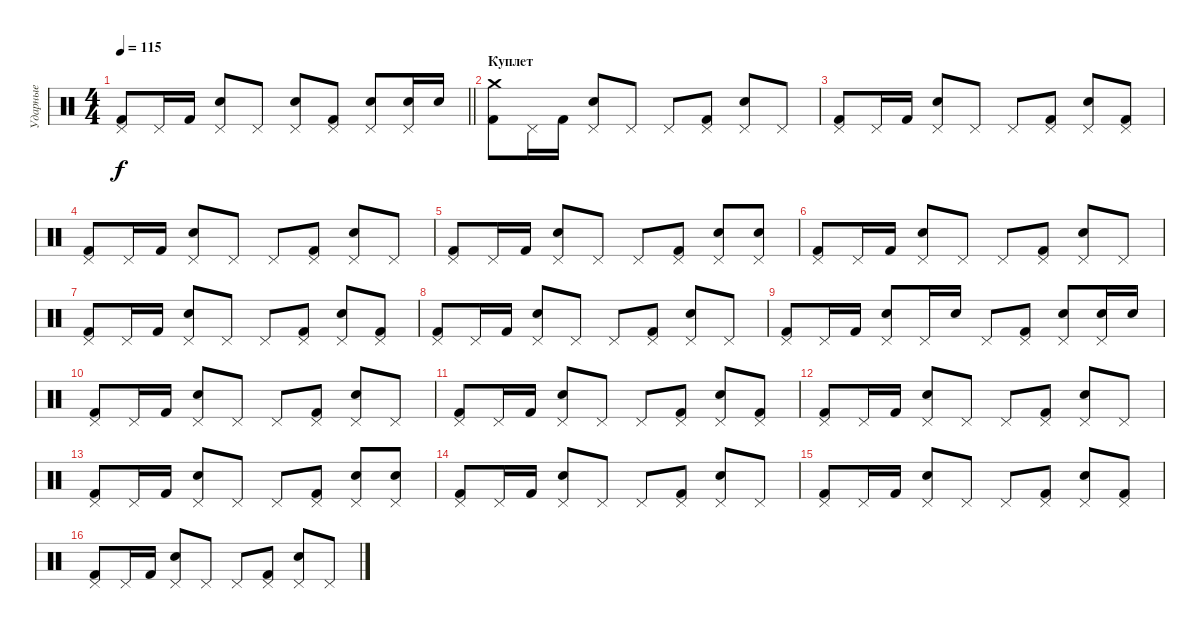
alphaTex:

\track ("Ударные" "Ударные") {instrument percussion}
\staff {score}
\articulation defaults
\ts (4 4)
\tempo 115
\clef neutral
\barLineRight lightlight
\ks c
("Pedal Hi-Hat (hit)" "Kick (hit) 2").8{dy f} "Pedal Hi-Hat (hit)".16 "Kick (hit) 2".16 ("Pedal Hi-Hat (hit)" "Electric Snare (hit)").8 "Pedal Hi-Hat (hit)".8 ("Pedal Hi-Hat (hit)" "Electric Snare (hit)").8 ("Pedal Hi-Hat (hit)" "Kick (hit) 2").8 ("Pedal Hi-Hat (hit)" "Electric Snare (hit)").8 ("Pedal Hi-Hat (hit)" "Electric Snare (hit)").16 "Electric Snare (hit)".16 |
\section ("" "Куплет")
("Crash medium (hit)" "Kick (hit) 2").8 "Pedal Hi-Hat (hit)".16 "Kick (hit) 2".16 ("Pedal Hi-Hat (hit)" "Electric Snare (hit)").8 "Pedal Hi-Hat (hit)".8 "Pedal Hi-Hat (hit)".8 ("Pedal Hi-Hat (hit)" "Kick (hit) 2").8 ("Pedal Hi-Hat (hit)" "Electric Snare (hit)").8 "Pedal Hi-Hat (hit)".8 |
("Pedal Hi-Hat (hit)" "Kick (hit) 2").8 "Pedal Hi-Hat (hit)".16 "Kick (hit) 2".16 ("Pedal Hi-Hat (hit)" "Electric Snare (hit)").8 "Pedal Hi-Hat (hit)".8 "Pedal Hi-Hat (hit)".8 ("Pedal Hi-Hat (hit)" "Kick (hit) 2").8 ("Pedal Hi-Hat (hit)" "Electric Snare (hit)").8 ("Pedal Hi-Hat (hit)" "Kick (hit) 2").8 |
("Pedal Hi-Hat (hit)" "Kick (hit) 2").8 "Pedal Hi-Hat (hit)".16 "Kick (hit) 2".16 ("Pedal Hi-Hat (hit)" "Electric Snare (hit)").8 "Pedal Hi-Hat (hit)".8 "Pedal Hi-Hat (hit)".8 ("Pedal Hi-Hat (hit)" "Kick (hit) 2").8 ("Pedal Hi-Hat (hit)" "Electric Snare (hit)").8 "Pedal Hi-Hat (hit)".8 |
("Pedal Hi-Hat (hit)" "Kick (hit) 2").8 "Pedal Hi-Hat (hit)".16 "Kick (hit) 2".16 ("Pedal Hi-Hat (hit)" "Electric Snare (hit)").8 "Pedal Hi-Hat (hit)".8 "Pedal Hi-Hat (hit)".8 ("Pedal Hi-Hat (hit)" "Kick (hit) 2").8 ("Pedal Hi-Hat (hit)" "Electric Snare (hit)").8 ("Pedal Hi-Hat (hit)" "Electric Snare (hit)").8 |
("Pedal Hi-Hat (hit)" "Kick (hit) 2").8 "Pedal Hi-Hat (hit)".16 "Kick (hit) 2".16 ("Pedal Hi-Hat (hit)" "Electric Snare (hit)").8 "Pedal Hi-Hat (hit)".8 "Pedal Hi-Hat (hit)".8 ("Pedal Hi-Hat (hit)" "Kick (hit) 2").8 ("Pedal Hi-Hat (hit)" "Electric Snare (hit)").8 "Pedal Hi-Hat (hit)".8 |
("Pedal Hi-Hat (hit)" "Kick (hit) 2").8 "Pedal Hi-Hat (hit)".16 "Kick (hit) 2".16 ("Pedal Hi-Hat (hit)" "Electric Snare (hit)").8 "Pedal Hi-Hat (hit)".8 "Pedal Hi-Hat (hit)".8 ("Pedal Hi-Hat (hit)" "Kick (hit) 2").8 ("Pedal Hi-Hat (hit)" "Electric Snare (hit)").8 ("Pedal Hi-Hat (hit)" "Kick (hit) 2").8 |
("Pedal Hi-Hat (hit)" "Kick (hit) 2").8 "Pedal Hi-Hat (hit)".16 "Kick (hit) 2".16 ("Pedal Hi-Hat (hit)" "Electric Snare (hit)").8 "Pedal Hi-Hat (hit)".8 "Pedal Hi-Hat (hit)".8 ("Pedal Hi-Hat (hit)" "Kick (hit) 2").8 ("Pedal Hi-Hat (hit)" "Electric Snare (hit)").8 "Pedal Hi-Hat (hit)".8 |
("Pedal Hi-Hat (hit)" "Kick (hit) 2").8 "Pedal Hi-Hat (hit)".16 "Kick (hit) 2".16 ("Pedal Hi-Hat (hit)" "Electric Snare (hit)").8 "Pedal Hi-Hat (hit)".16 "Electric Snare (hit)".16 "Pedal Hi-Hat (hit)".8 ("Pedal Hi-Hat (hit)" "Kick (hit) 2").8 ("Pedal Hi-Hat (hit)" "Electric Snare (hit)").8 ("Pedal Hi-Hat (hit)" "Electric Snare (hit)").16 "Electric Snare (hit)".16 |
("Pedal Hi-Hat (hit)" "Kick (hit) 2").8 "Pedal Hi-Hat (hit)".16 "Kick (hit) 2".16 ("Pedal Hi-Hat (hit)" "Electric Snare (hit)").8 "Pedal Hi-Hat (hit)".8 "Pedal Hi-Hat (hit)".8 ("Pedal Hi-Hat (hit)" "Kick (hit) 2").8 ("Pedal Hi-Hat (hit)" "Electric Snare (hit)").8 "Pedal Hi-Hat (hit)".8 |
("Pedal Hi-Hat (hit)" "Kick (hit) 2").8 "Pedal Hi-Hat (hit)".16 "Kick (hit) 2".16 ("Pedal Hi-Hat (hit)" "Electric Snare (hit)").8 "Pedal Hi-Hat (hit)".8 "Pedal Hi-Hat (hit)".8 ("Pedal Hi-Hat (hit)" "Kick (hit) 2").8 ("Pedal Hi-Hat (hit)" "Electric Snare (hit)").8 ("Pedal Hi-Hat (hit)" "Kick (hit) 2").8 |
("Pedal Hi-Hat (hit)" "Kick (hit) 2").8 "Pedal Hi-Hat (hit)".16 "Kick (hit) 2".16 ("Pedal Hi-Hat (hit)" "Electric Snare (hit)").8 "Pedal Hi-Hat (hit)".8 "Pedal Hi-Hat (hit)".8 ("Pedal Hi-Hat (hit)" "Kick (hit) 2").8 ("Pedal Hi-Hat (hit)" "Electric Snare (hit)").8 "Pedal Hi-Hat (hit)".8 |
("Pedal Hi-Hat (hit)" "Kick (hit) 2").8 "Pedal Hi-Hat (hit)".16 "Kick (hit) 2".16 ("Pedal Hi-Hat (hit)" "Electric Snare (hit)").8 "Pedal Hi-Hat (hit)".8 "Pedal Hi-Hat (hit)".8 ("Pedal Hi-Hat (hit)" "Kick (hit) 2").8 ("Pedal Hi-Hat (hit)" "Electric Snare (hit)").8 ("Pedal Hi-Hat (hit)" "Electric Snare (hit)").8 |
("Pedal Hi-Hat (hit)" "Kick (hit) 2").8 "Pedal Hi-Hat (hit)".16 "Kick (hit) 2".16 ("Pedal Hi-Hat (hit)" "Electric Snare (hit)").8 "Pedal Hi-Hat (hit)".8 "Pedal Hi-Hat (hit)".8 ("Pedal Hi-Hat (hit)" "Kick (hit) 2").8 ("Pedal Hi-Hat (hit)" "Electric Snare (hit)").8 "Pedal Hi-Hat (hit)".8 |
("Pedal Hi-Hat (hit)" "Kick (hit) 2").8 "Pedal Hi-Hat (hit)".16 "Kick (hit) 2".16 ("Pedal Hi-Hat (hit)" "Electric Snare (hit)").8 "Pedal Hi-Hat (hit)".8 "Pedal Hi-Hat (hit)".8 ("Pedal Hi-Hat (hit)" "Kick (hit) 2").8 ("Pedal Hi-Hat (hit)" "Electric Snare (hit)").8 ("Pedal Hi-Hat (hit)" "Kick (hit) 2").8 |
("Pedal Hi-Hat (hit)" "Kick (hit) 2").8 "Pedal Hi-Hat (hit)".16 "Kick (hit) 2".16 ("Pedal Hi-Hat (hit)" "Electric Snare (hit)").8 "Pedal Hi-Hat (hit)".8 "Pedal Hi-Hat (hit)".8 ("Pedal Hi-Hat (hit)" "Kick (hit) 2").8 ("Pedal Hi-Hat (hit)" "Electric Snare (hit)").8 "Pedal Hi-Hat (hit)".8
